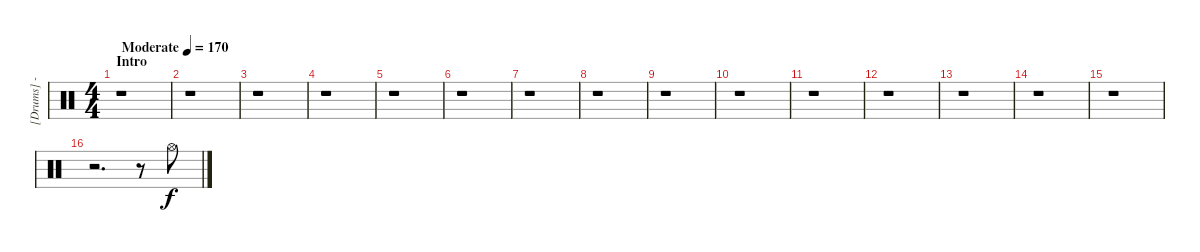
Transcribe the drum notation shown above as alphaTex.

\track ("[Drums] - Trè Cool" "[Drums] - ") {instrument percussion}
\staff {score}
\articulation defaults
\ts (4 4)
\section ("" "Intro")
\tempo (170 "Moderate")
\clef neutral
\ks c
r.1{dy f} |
r.1 |
r.1 |
r.1 |
r.1 |
r.1 |
r.1 |
r.1 |
r.1 |
r.1 |
r.1 |
r.1 |
r.1 |
r.1 |
r.1 |
r.2{d} r.8 "Hi-Hat (open)".8
